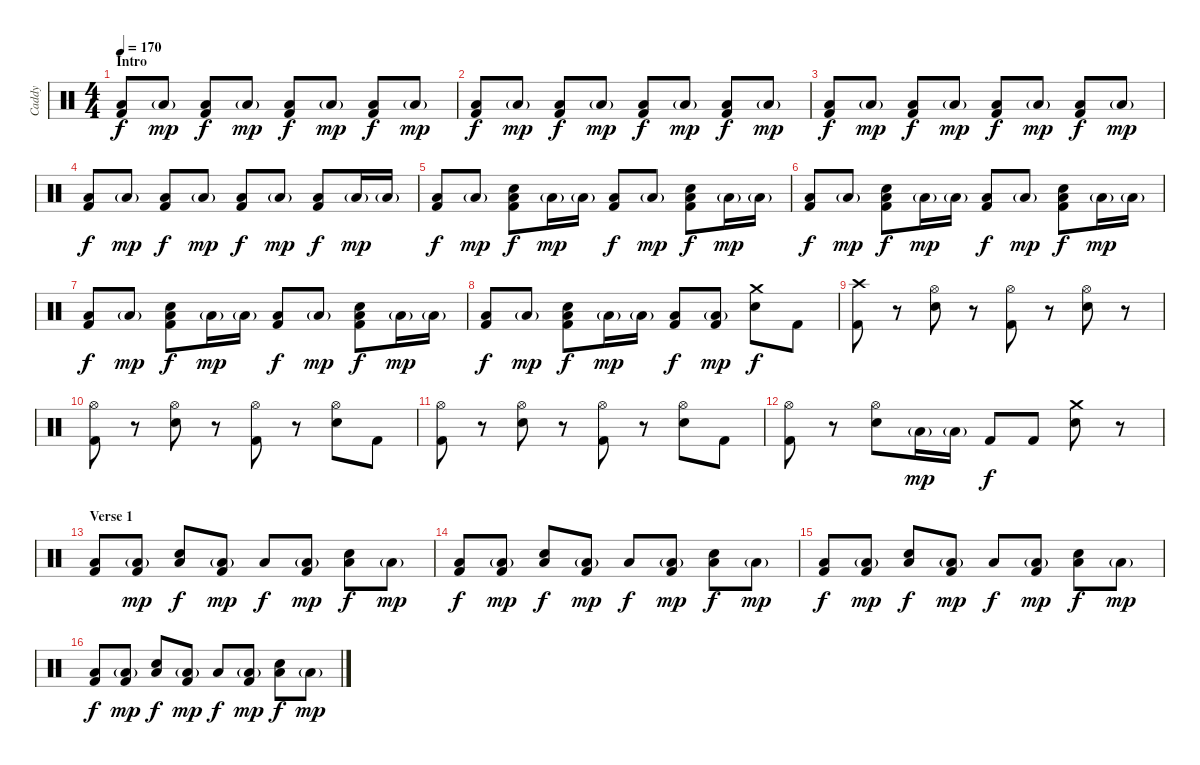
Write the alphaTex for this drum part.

\track ("Caddy" "Caddy") {instrument percussion}
\staff {score}
\articulation defaults
\ts (4 4)
\section ("" "Intro")
\tempo 170
\clef neutral
\ks c
("Low Floor Tom (hit)" "Kick (hit) 2").8{dy f} "Low Floor Tom (hit)"{g}.8{dy mp} ("Low Floor Tom (hit)" "Kick (hit) 2").8{dy f} "Low Floor Tom (hit)"{g}.8{dy mp} ("Low Floor Tom (hit)" "Kick (hit) 2").8{dy f} "Low Floor Tom (hit)"{g}.8{dy mp} ("Low Floor Tom (hit)" "Kick (hit) 2").8{dy f} "Low Floor Tom (hit)"{g}.8{dy mp} |
("Low Floor Tom (hit)" "Kick (hit) 2").8{dy f} "Low Floor Tom (hit)"{g}.8{dy mp} ("Low Floor Tom (hit)" "Kick (hit) 2").8{dy f} "Low Floor Tom (hit)"{g}.8{dy mp} ("Low Floor Tom (hit)" "Kick (hit) 2").8{dy f} "Low Floor Tom (hit)"{g}.8{dy mp} ("Low Floor Tom (hit)" "Kick (hit) 2").8{dy f} "Low Floor Tom (hit)"{g}.8{dy mp} |
("Low Floor Tom (hit)" "Kick (hit) 2").8{dy f} "Low Floor Tom (hit)"{g}.8{dy mp} ("Low Floor Tom (hit)" "Kick (hit) 2").8{dy f} "Low Floor Tom (hit)"{g}.8{dy mp} ("Low Floor Tom (hit)" "Kick (hit) 2").8{dy f} "Low Floor Tom (hit)"{g}.8{dy mp} ("Low Floor Tom (hit)" "Kick (hit) 2").8{dy f} "Low Floor Tom (hit)"{g}.8{dy mp} |
("Low Floor Tom (hit)" "Kick (hit) 2").8{dy f} "Low Floor Tom (hit)"{g}.8{dy mp} ("Low Floor Tom (hit)" "Kick (hit) 2").8{dy f} "Low Floor Tom (hit)"{g}.8{dy mp} ("Low Floor Tom (hit)" "Kick (hit) 2").8{dy f} "Low Floor Tom (hit)"{g}.8{dy mp} ("Low Floor Tom (hit)" "Kick (hit) 2").8{dy f} "Low Floor Tom (hit)"{g}.16{dy mp} "Low Floor Tom (hit)"{g}.16 |
("Low Floor Tom (hit)" "Kick (hit) 2").8{dy f} "Low Floor Tom (hit)"{g}.8{dy mp} ("Electric Snare (hit)" "Low Floor Tom (hit)" "Kick (hit) 2").8{dy f} "Low Floor Tom (hit)"{g}.16{dy mp} "Low Floor Tom (hit)"{g}.16 ("Low Floor Tom (hit)" "Kick (hit) 2").8{dy f} "Low Floor Tom (hit)"{g}.8{dy mp} ("Electric Snare (hit)" "Low Floor Tom (hit)" "Kick (hit) 2").8{dy f} "Low Floor Tom (hit)"{g}.16{dy mp} "Low Floor Tom (hit)"{g}.16 |
("Low Floor Tom (hit)" "Kick (hit) 2").8{dy f} "Low Floor Tom (hit)"{g}.8{dy mp} ("Electric Snare (hit)" "Low Floor Tom (hit)" "Kick (hit) 2").8{dy f} "Low Floor Tom (hit)"{g}.16{dy mp} "Low Floor Tom (hit)"{g}.16 ("Low Floor Tom (hit)" "Kick (hit) 2").8{dy f} "Low Floor Tom (hit)"{g}.8{dy mp} ("Electric Snare (hit)" "Low Floor Tom (hit)" "Kick (hit) 2").8{dy f} "Low Floor Tom (hit)"{g}.16{dy mp} "Low Floor Tom (hit)"{g}.16 |
("Low Floor Tom (hit)" "Kick (hit) 2").8{dy f} "Low Floor Tom (hit)"{g}.8{dy mp} ("Electric Snare (hit)" "Low Floor Tom (hit)" "Kick (hit) 2").8{dy f} "Low Floor Tom (hit)"{g}.16{dy mp} "Low Floor Tom (hit)"{g}.16 ("Low Floor Tom (hit)" "Kick (hit) 2").8{dy f} "Low Floor Tom (hit)"{g}.8{dy mp} ("Electric Snare (hit)" "Low Floor Tom (hit)" "Kick (hit) 2").8{dy f} "Low Floor Tom (hit)"{g}.16{dy mp} "Low Floor Tom (hit)"{g}.16 |
("Low Floor Tom (hit)" "Kick (hit) 2").8{dy f} "Low Floor Tom (hit)"{g}.8{dy mp} ("Electric Snare (hit)" "Low Floor Tom (hit)" "Kick (hit) 2").8{dy f} "Low Floor Tom (hit)"{g}.16{dy mp} "Low Floor Tom (hit)"{g}.16 ("Low Floor Tom (hit)" "Kick (hit) 2").8{dy f} ("Low Floor Tom (hit)"{g} "Kick (hit) 2").8{dy mp} ("Crash medium (hit)" "Electric Snare (hit)").8{dy f} "Kick (hit) 2".8 |
("Crash high (hit)" "Kick (hit) 2").8 r.8 ("Hi-Hat (open)" "Electric Snare (hit)").8 r.8 ("Hi-Hat (open)" "Kick (hit) 2").8 r.8 ("Hi-Hat (open)" "Electric Snare (hit)").8 r.8 |
("Hi-Hat (open)" "Kick (hit) 2").8 r.8 ("Hi-Hat (open)" "Electric Snare (hit)").8 r.8 ("Hi-Hat (open)" "Kick (hit) 2").8 r.8 ("Hi-Hat (open)" "Electric Snare (hit)").8 "Kick (hit) 2".8 |
("Hi-Hat (open)" "Kick (hit) 2").8 r.8 ("Hi-Hat (open)" "Electric Snare (hit)").8 r.8 ("Hi-Hat (open)" "Kick (hit) 2").8 r.8 ("Hi-Hat (open)" "Electric Snare (hit)").8 "Kick (hit) 2".8 |
("Hi-Hat (open)" "Kick (hit) 2").8 r.8 ("Hi-Hat (open)" "Electric Snare (hit)").8 "Low Floor Tom (hit)"{g}.16{dy mp} "Low Floor Tom (hit)"{g}.16 "Kick (hit) 2".8{dy f} "Kick (hit) 2".8 ("Crash medium (hit)" "Electric Snare (hit)").8 r.8 |
\section ("" "Verse 1")
("Low Floor Tom (hit)" "Kick (hit) 2").8 ("Low Floor Tom (hit)"{g} "Kick (hit) 2").8{dy mp} ("Electric Snare (hit)" "Low Floor Tom (hit)").8{dy f} ("Low Floor Tom (hit)"{g} "Kick (hit) 2").8{dy mp} "Low Floor Tom (hit)".8{dy f} ("Low Floor Tom (hit)"{g} "Kick (hit) 2").8{dy mp} ("Electric Snare (hit)" "Low Floor Tom (hit)").8{dy f} "Low Floor Tom (hit)"{g}.8{dy mp} |
("Low Floor Tom (hit)" "Kick (hit) 2").8{dy f} ("Low Floor Tom (hit)"{g} "Kick (hit) 2").8{dy mp} ("Electric Snare (hit)" "Low Floor Tom (hit)").8{dy f} ("Low Floor Tom (hit)"{g} "Kick (hit) 2").8{dy mp} "Low Floor Tom (hit)".8{dy f} ("Low Floor Tom (hit)"{g} "Kick (hit) 2").8{dy mp} ("Electric Snare (hit)" "Low Floor Tom (hit)").8{dy f} "Low Floor Tom (hit)"{g}.8{dy mp} |
("Low Floor Tom (hit)" "Kick (hit) 2").8{dy f} ("Low Floor Tom (hit)"{g} "Kick (hit) 2").8{dy mp} ("Electric Snare (hit)" "Low Floor Tom (hit)").8{dy f} ("Low Floor Tom (hit)"{g} "Kick (hit) 2").8{dy mp} "Low Floor Tom (hit)".8{dy f} ("Low Floor Tom (hit)"{g} "Kick (hit) 2").8{dy mp} ("Electric Snare (hit)" "Low Floor Tom (hit)").8{dy f} "Low Floor Tom (hit)"{g}.8{dy mp} |
("Low Floor Tom (hit)" "Kick (hit) 2").8{dy f} ("Low Floor Tom (hit)"{g} "Kick (hit) 2").8{dy mp} ("Electric Snare (hit)" "Low Floor Tom (hit)").8{dy f} ("Low Floor Tom (hit)"{g} "Kick (hit) 2").8{dy mp} "Low Floor Tom (hit)".8{dy f} ("Low Floor Tom (hit)"{g} "Kick (hit) 2").8{dy mp} ("Electric Snare (hit)" "Low Floor Tom (hit)").8{dy f} "Low Floor Tom (hit)"{g}.8{dy mp}
